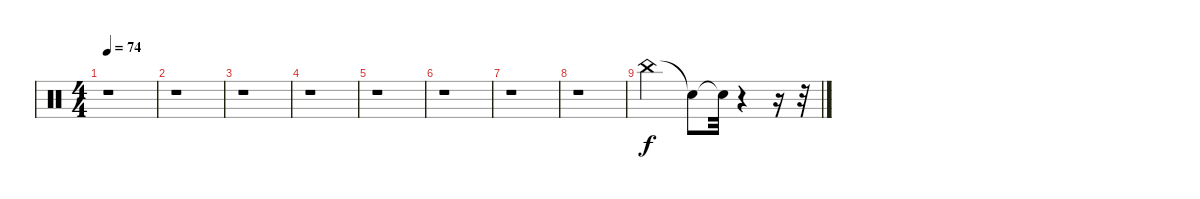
\track "" {instrument percussion}
\staff {score}
\articulation defaults
\ts (4 4)
\tempo 74
\clef neutral
\ks c
r.1{dy f} |
r.1 |
r.1 |
r.1 |
r.1 |
r.1 |
r.1 |
r.1 |
"China (hit)".2 "Snare (hit)"{t}.8 "Snare (hit)"{t}.32 r.4 r.16 r.32
